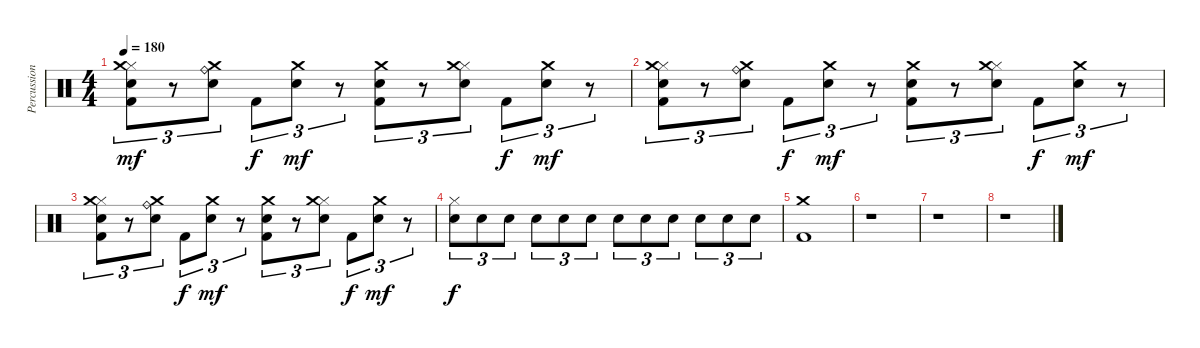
\track ("Percussions" "Percussion") {instrument percussion}
\staff {score}
\articulation defaults
\ts (4 4)
\tempo 180
\clef neutral
\ks c
("Kick (hit) 2" "Electric Snare (hit)" "Hi-Hat (closed)" "Crash medium (hit)").8{tu (3 2) dy mf} r.8{tu (3 2)} ("Electric Snare (hit)" "Ride (bell)" "Crash medium (hit)").8{tu (3 2)} "Kick (hit) 2".8{tu (3 2) dy f} ("Electric Snare (hit)" "Crash medium (hit)").8{tu (3 2) dy mf} r.8{tu (3 2)} ("Kick (hit) 2" "Electric Snare (hit)" "Crash medium (hit)").8{tu (3 2)} r.8{tu (3 2)} ("Electric Snare (hit)" "Hi-Hat (closed)" "Crash medium (hit)").8{tu (3 2)} "Kick (hit) 2".8{tu (3 2) dy f} ("Electric Snare (hit)" "Crash medium (hit)").8{tu (3 2) dy mf} r.8{tu (3 2)} |
("Kick (hit) 2" "Electric Snare (hit)" "Hi-Hat (closed)" "Crash medium (hit)").8{tu (3 2)} r.8{tu (3 2)} ("Electric Snare (hit)" "Ride (bell)" "Crash medium (hit)").8{tu (3 2)} "Kick (hit) 2".8{tu (3 2) dy f} ("Electric Snare (hit)" "Crash medium (hit)").8{tu (3 2) dy mf} r.8{tu (3 2)} ("Kick (hit) 2" "Electric Snare (hit)" "Crash medium (hit)").8{tu (3 2)} r.8{tu (3 2)} ("Electric Snare (hit)" "Hi-Hat (closed)" "Crash medium (hit)").8{tu (3 2)} "Kick (hit) 2".8{tu (3 2) dy f} ("Electric Snare (hit)" "Crash medium (hit)").8{tu (3 2) dy mf} r.8{tu (3 2)} |
("Kick (hit) 2" "Electric Snare (hit)" "Hi-Hat (closed)" "Crash medium (hit)").8{tu (3 2)} r.8{tu (3 2)} ("Electric Snare (hit)" "Ride (bell)" "Crash medium (hit)").8{tu (3 2)} "Kick (hit) 2".8{tu (3 2) dy f} ("Electric Snare (hit)" "Crash medium (hit)").8{tu (3 2) dy mf} r.8{tu (3 2)} ("Kick (hit) 2" "Electric Snare (hit)" "Crash medium (hit)").8{tu (3 2)} r.8{tu (3 2)} ("Electric Snare (hit)" "Hi-Hat (closed)" "Crash medium (hit)").8{tu (3 2)} "Kick (hit) 2".8{tu (3 2) dy f} ("Electric Snare (hit)" "Crash medium (hit)").8{tu (3 2) dy mf} r.8{tu (3 2)} |
("Electric Snare (hit)" "Hi-Hat (closed)").8{tu (3 2) dy f} "Electric Snare (hit)".8{tu (3 2)} "Electric Snare (hit)".8{tu (3 2)} "Electric Snare (hit)".8{tu (3 2)} "Electric Snare (hit)".8{tu (3 2)} "Electric Snare (hit)".8{tu (3 2)} "Electric Snare (hit)".8{tu (3 2)} "Electric Snare (hit)".8{tu (3 2)} "Electric Snare (hit)".8{tu (3 2)} "Electric Snare (hit)".8{tu (3 2)} "Electric Snare (hit)".8{tu (3 2)} "Electric Snare (hit)".8{tu (3 2)} |
("Kick (hit) 2" "Crash medium (hit)").1 |
r.1 |
r.1 |
r.1
